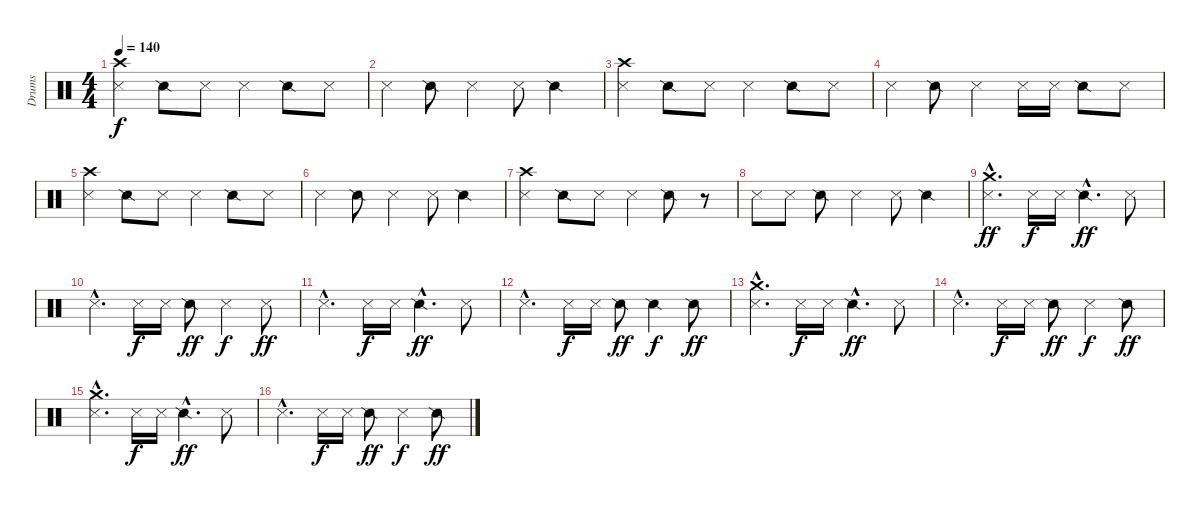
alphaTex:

\track ("Drums" "Drums") {instrument percussion}
\staff {score}
\articulation defaults
\ts (4 4)
\tempo 140
\clef neutral
\ks c
("Crash high (hit)" "Metronome (hit)").4{dy f} "Snare (side stick) 2".8 "Metronome (hit)".8 "Metronome (hit)".4 "Snare (side stick) 2".8 "Metronome (hit)".8 |
"Metronome (hit)".4 "Snare (side stick) 2".8 "Metronome (hit)".4 "Metronome (hit)".8 "Snare (side stick) 2".4 |
("Crash high (hit)" "Metronome (hit)").4 "Snare (side stick) 2".8 "Metronome (hit)".8 "Metronome (hit)".4 "Snare (side stick) 2".8 "Metronome (hit)".8 |
"Metronome (hit)".4 "Snare (side stick) 2".8 "Metronome (hit)".4 "Metronome (hit)".16 "Metronome (hit)".16 "Snare (side stick) 2".8 "Metronome (hit)".8 |
("Crash high (hit)" "Metronome (hit)").4 "Snare (side stick) 2".8 "Metronome (hit)".8 "Metronome (hit)".4 "Snare (side stick) 2".8 "Metronome (hit)".8 |
"Metronome (hit)".4 "Snare (side stick) 2".8 "Metronome (hit)".4 "Metronome (hit)".8 "Snare (side stick) 2".4 |
("Crash high (hit)" "Metronome (hit)").4 "Snare (side stick) 2".8 "Metronome (hit)".8 "Metronome (hit)".4 "Snare (side stick) 2".8 r.8 |
"Metronome (hit)".8 "Metronome (hit)".8 "Snare (side stick) 2".8 "Metronome (hit)".4 "Metronome (hit)".8 "Snare (side stick) 2".4 |
("Crash medium (hit)"{hac} "Metronome (hit)"{hac}).4{d dy ff} "Metronome (hit)".16{dy f} "Metronome (hit)".16 "Snare (side stick) 2"{hac}.4{d dy ff} "Metronome (hit)".8 |
"Metronome (hit)"{hac}.4{d} "Metronome (hit)".16{dy f} "Metronome (hit)".16 "Snare (side stick) 2".8{dy ff} "Metronome (hit)".4{dy f} "Metronome (hit)".8{dy ff} |
"Metronome (hit)"{hac}.4{d} "Metronome (hit)".16{dy f} "Metronome (hit)".16 "Snare (side stick) 2"{hac}.4{d dy ff} "Metronome (hit)".8 |
"Metronome (hit)"{hac}.4{d} "Metronome (hit)".16{dy f} "Metronome (hit)".16 "Snare (side stick) 2".8{dy ff} "Snare (side stick) 2".4{dy f} "Snare (side stick) 2".8{dy ff} |
("Crash medium (hit)"{hac} "Metronome (hit)"{hac}).4{d} "Metronome (hit)".16{dy f} "Metronome (hit)".16 "Snare (side stick) 2"{hac}.4{d dy ff} "Metronome (hit)".8 |
"Metronome (hit)"{hac}.4{d} "Metronome (hit)".16{dy f} "Metronome (hit)".16 "Snare (side stick) 2".8{dy ff} "Metronome (hit)".4{dy f} "Snare (side stick) 2".8{dy ff} |
("Crash medium (hit)"{hac} "Metronome (hit)"{hac}).4{d} "Metronome (hit)".16{dy f} "Metronome (hit)".16 "Snare (side stick) 2"{hac}.4{d dy ff} "Metronome (hit)".8 |
"Metronome (hit)"{hac}.4{d} "Metronome (hit)".16{dy f} "Metronome (hit)".16 "Snare (side stick) 2".8{dy ff} "Metronome (hit)".4{dy f} "Snare (side stick) 2".8{dy ff}
